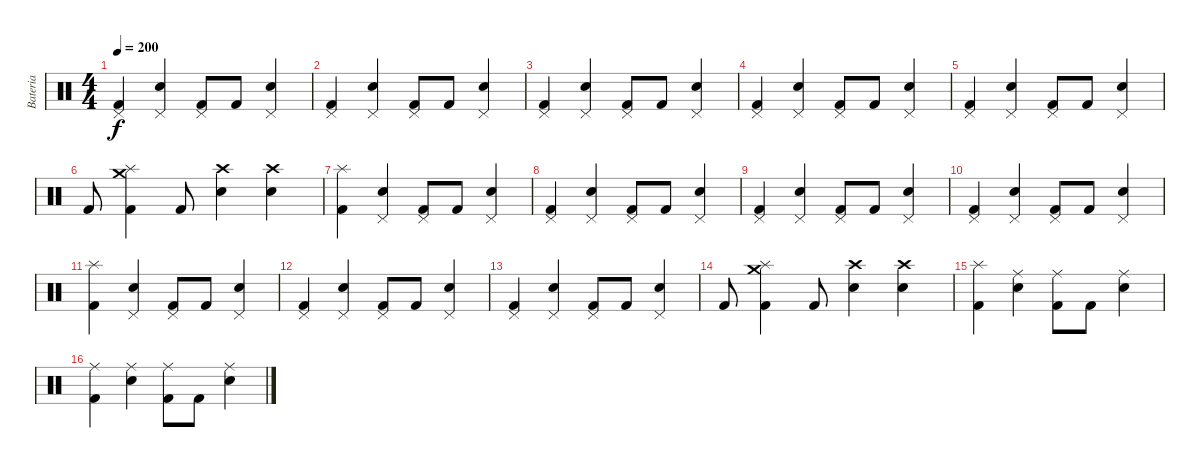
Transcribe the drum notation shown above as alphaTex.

\track ("Bateria " "Bateria ") {instrument percussion}
\staff {score}
\articulation defaults
\ts (4 4)
\tempo 200
\clef neutral
\ks c
("Kick (hit) 2" "Pedal Hi-Hat (hit)").4{dy f} ("Electric Snare (hit)" "Pedal Hi-Hat (hit)").4 ("Kick (hit) 2" "Pedal Hi-Hat (hit)").8 "Kick (hit) 2".8 ("Electric Snare (hit)" "Pedal Hi-Hat (hit)").4 |
("Kick (hit) 2" "Pedal Hi-Hat (hit)").4 ("Electric Snare (hit)" "Pedal Hi-Hat (hit)").4 ("Kick (hit) 2" "Pedal Hi-Hat (hit)").8 "Kick (hit) 2".8 ("Electric Snare (hit)" "Pedal Hi-Hat (hit)").4 |
("Kick (hit) 2" "Pedal Hi-Hat (hit)").4 ("Electric Snare (hit)" "Pedal Hi-Hat (hit)").4 ("Kick (hit) 2" "Pedal Hi-Hat (hit)").8 "Kick (hit) 2".8 ("Electric Snare (hit)" "Pedal Hi-Hat (hit)").4 |
("Kick (hit) 2" "Pedal Hi-Hat (hit)").4 ("Electric Snare (hit)" "Pedal Hi-Hat (hit)").4 ("Kick (hit) 2" "Pedal Hi-Hat (hit)").8 "Kick (hit) 2".8 ("Electric Snare (hit)" "Pedal Hi-Hat (hit)").4 |
("Kick (hit) 2" "Pedal Hi-Hat (hit)").4 ("Electric Snare (hit)" "Pedal Hi-Hat (hit)").4 ("Kick (hit) 2" "Pedal Hi-Hat (hit)").8 "Kick (hit) 2".8 ("Electric Snare (hit)" "Pedal Hi-Hat (hit)").4 |
"Kick (hit) 2".8 ("Kick (hit) 2" "Crash medium (hit)" "Splash (hit)").4 "Kick (hit) 2".8 ("Electric Snare (hit)" "Crash high (hit)").4 ("Electric Snare (hit)" "Crash high (hit)").4 |
("Kick (hit) 2" "Splash (hit)").4 ("Electric Snare (hit)" "Pedal Hi-Hat (hit)").4 ("Kick (hit) 2" "Pedal Hi-Hat (hit)").8 "Kick (hit) 2".8 ("Electric Snare (hit)" "Pedal Hi-Hat (hit)").4 |
("Kick (hit) 2" "Pedal Hi-Hat (hit)").4 ("Electric Snare (hit)" "Pedal Hi-Hat (hit)").4 ("Kick (hit) 2" "Pedal Hi-Hat (hit)").8 "Kick (hit) 2".8 ("Electric Snare (hit)" "Pedal Hi-Hat (hit)").4 |
("Kick (hit) 2" "Pedal Hi-Hat (hit)").4 ("Electric Snare (hit)" "Pedal Hi-Hat (hit)").4 ("Kick (hit) 2" "Pedal Hi-Hat (hit)").8 "Kick (hit) 2".8 ("Electric Snare (hit)" "Pedal Hi-Hat (hit)").4 |
("Kick (hit) 2" "Pedal Hi-Hat (hit)").4 ("Electric Snare (hit)" "Pedal Hi-Hat (hit)").4 ("Kick (hit) 2" "Pedal Hi-Hat (hit)").8 "Kick (hit) 2".8 ("Electric Snare (hit)" "Pedal Hi-Hat (hit)").4 |
("Kick (hit) 2" "Splash (hit)").4 ("Electric Snare (hit)" "Pedal Hi-Hat (hit)").4 ("Kick (hit) 2" "Pedal Hi-Hat (hit)").8 "Kick (hit) 2".8 ("Electric Snare (hit)" "Pedal Hi-Hat (hit)").4 |
("Kick (hit) 2" "Pedal Hi-Hat (hit)").4 ("Electric Snare (hit)" "Pedal Hi-Hat (hit)").4 ("Kick (hit) 2" "Pedal Hi-Hat (hit)").8 "Kick (hit) 2".8 ("Electric Snare (hit)" "Pedal Hi-Hat (hit)").4 |
("Kick (hit) 2" "Pedal Hi-Hat (hit)").4 ("Electric Snare (hit)" "Pedal Hi-Hat (hit)").4 ("Kick (hit) 2" "Pedal Hi-Hat (hit)").8 "Kick (hit) 2".8 ("Electric Snare (hit)" "Pedal Hi-Hat (hit)").4 |
"Kick (hit) 2".8 ("Kick (hit) 2" "Crash medium (hit)" "Splash (hit)").4 "Kick (hit) 2".8 ("Electric Snare (hit)" "Crash high (hit)").4 ("Electric Snare (hit)" "Crash high (hit)").4 |
("Kick (hit) 2" "Splash (hit)").4 ("Electric Snare (hit)" "Ride (middle)").4 ("Kick (hit) 2" "Ride (middle)").8 "Kick (hit) 2".8 ("Electric Snare (hit)" "Ride (middle)").4 |
("Kick (hit) 2" "Ride (middle)").4 ("Electric Snare (hit)" "Ride (middle)").4 ("Kick (hit) 2" "Ride (middle)").8 "Kick (hit) 2".8 ("Electric Snare (hit)" "Ride (middle)").4
